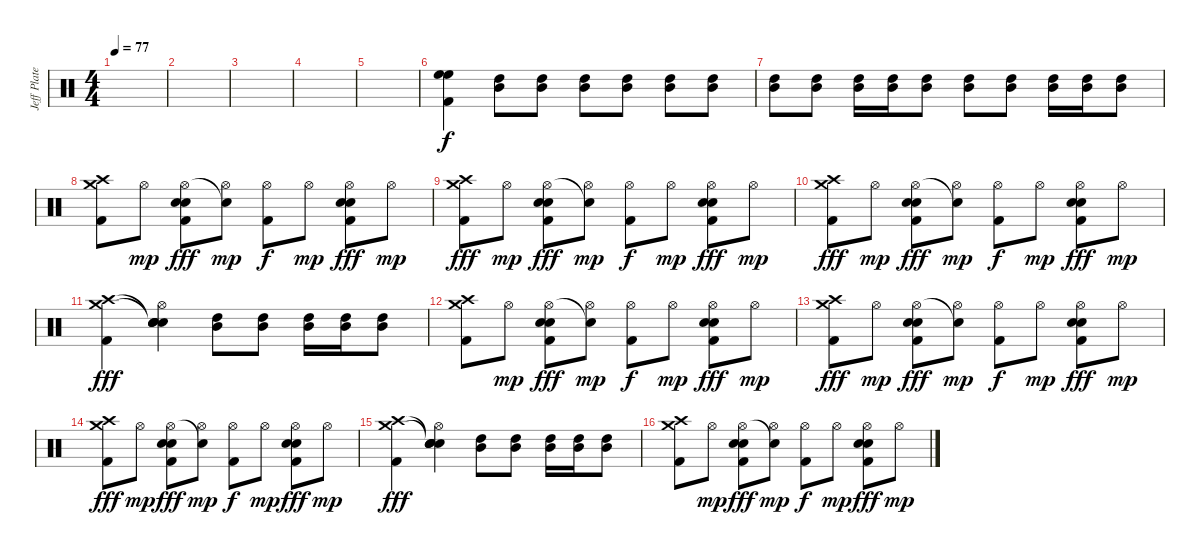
\track ("Jeff Plate" "Jeff Plate") {instrument percussion}
\staff {score}
\articulation defaults
\ts (4 4)
\tempo 77
\clef neutral
\ks c
|
|
|
|
|
("High Floor Tom (hit)" "High Floor Tom (hit)" "Kick (hit) 2").4 ("High Tom (hit)" "Mid Tom (hit)").8 ("High Tom (hit)" "Mid Tom (hit)").8 ("High Tom (hit)" "Mid Tom (hit)").8 ("High Tom (hit)" "Mid Tom (hit)").8 ("High Tom (hit)" "Mid Tom (hit)").8 ("High Tom (hit)" "Mid Tom (hit)").8 |
("High Tom (hit)" "Mid Tom (hit)").8 ("High Tom (hit)" "Mid Tom (hit)").8 ("High Tom (hit)" "Mid Tom (hit)").16 ("High Tom (hit)" "Mid Tom (hit)").16 ("High Tom (hit)" "Mid Tom (hit)").8 ("High Tom (hit)" "Mid Tom (hit)").8 ("High Tom (hit)" "Mid Tom (hit)").8 ("High Tom (hit)" "Mid Tom (hit)").16 ("High Tom (hit)" "Mid Tom (hit)").16 ("High Tom (hit)" "Mid Tom (hit)").8 |
("Crash medium (hit)" "Crash high (hit)" "Kick (hit) 2").8 "Hi-Hat (open)".8{dy mp} ("Hi-Hat (open)" "Electric Snare (hit)" "Electric Snare (hit)" "Kick (hit) 2").8{dy fff} ("Snare (hit)"{t} "Hi-Hat (open)").8{dy mp} ("Hi-Hat (open)" "Kick (hit) 2").8{dy f} "Hi-Hat (open)".8{dy mp} ("Hi-Hat (open)" "Electric Snare (hit)" "Electric Snare (hit)" "Kick (hit) 2").8{dy fff} "Hi-Hat (open)".8{dy mp} |
("Crash medium (hit)" "Crash high (hit)" "Kick (hit) 2").8{dy fff} "Hi-Hat (open)".8{dy mp} ("Hi-Hat (open)" "Electric Snare (hit)" "Electric Snare (hit)" "Kick (hit) 2").8{dy fff} ("Snare (hit)"{t} "Hi-Hat (open)").8{dy mp} ("Hi-Hat (open)" "Kick (hit) 2").8{dy f} "Hi-Hat (open)".8{dy mp} ("Hi-Hat (open)" "Electric Snare (hit)" "Electric Snare (hit)" "Kick (hit) 2").8{dy fff} "Hi-Hat (open)".8{dy mp} |
("Crash medium (hit)" "Crash high (hit)" "Kick (hit) 2").8{dy fff} "Hi-Hat (open)".8{dy mp} ("Hi-Hat (open)" "Electric Snare (hit)" "Electric Snare (hit)" "Kick (hit) 2").8{dy fff} ("Snare (hit)"{t} "Hi-Hat (open)").8{dy mp} ("Hi-Hat (open)" "Kick (hit) 2").8{dy f} "Hi-Hat (open)".8{dy mp} ("Hi-Hat (open)" "Electric Snare (hit)" "Electric Snare (hit)" "Kick (hit) 2").8{dy fff} "Hi-Hat (open)".8{dy mp} |
("Crash medium (hit)" "Crash high (hit)" "Kick (hit) 2").4{dy fff} ("Snare (hit)"{t} "Snare (hit)"{t} "Hi-Hat (open)" "Electric Snare (hit)" "Electric Snare (hit)").4 ("Mid Tom (hit)" "High Tom (hit)").8 ("Mid Tom (hit)" "High Tom (hit)").8 ("Mid Tom (hit)" "High Tom (hit)").16 ("Mid Tom (hit)" "High Tom (hit)").16 ("Mid Tom (hit)" "High Tom (hit)").8 |
("Crash medium (hit)" "Crash high (hit)" "Kick (hit) 2").8 "Hi-Hat (open)".8{dy mp} ("Hi-Hat (open)" "Electric Snare (hit)" "Electric Snare (hit)" "Kick (hit) 2").8{dy fff} ("Snare (hit)"{t} "Hi-Hat (open)").8{dy mp} ("Hi-Hat (open)" "Kick (hit) 2").8{dy f} "Hi-Hat (open)".8{dy mp} ("Hi-Hat (open)" "Electric Snare (hit)" "Electric Snare (hit)" "Kick (hit) 2").8{dy fff} "Hi-Hat (open)".8{dy mp} |
("Crash medium (hit)" "Crash high (hit)" "Kick (hit) 2").8{dy fff} "Hi-Hat (open)".8{dy mp} ("Hi-Hat (open)" "Electric Snare (hit)" "Electric Snare (hit)" "Kick (hit) 2").8{dy fff} ("Snare (hit)"{t} "Hi-Hat (open)").8{dy mp} ("Hi-Hat (open)" "Kick (hit) 2").8{dy f} "Hi-Hat (open)".8{dy mp} ("Hi-Hat (open)" "Electric Snare (hit)" "Electric Snare (hit)" "Kick (hit) 2").8{dy fff} "Hi-Hat (open)".8{dy mp} |
("Crash medium (hit)" "Crash high (hit)" "Kick (hit) 2").8{dy fff} "Hi-Hat (open)".8{dy mp} ("Hi-Hat (open)" "Electric Snare (hit)" "Electric Snare (hit)" "Kick (hit) 2").8{dy fff} ("Snare (hit)"{t} "Hi-Hat (open)").8{dy mp} ("Hi-Hat (open)" "Kick (hit) 2").8{dy f} "Hi-Hat (open)".8{dy mp} ("Hi-Hat (open)" "Electric Snare (hit)" "Electric Snare (hit)" "Kick (hit) 2").8{dy fff} "Hi-Hat (open)".8{dy mp} |
("Crash medium (hit)" "Crash high (hit)" "Kick (hit) 2").4{dy fff} ("Snare (hit)"{t} "Snare (hit)"{t} "Hi-Hat (open)" "Electric Snare (hit)" "Electric Snare (hit)").4 ("Mid Tom (hit)" "High Tom (hit)").8 ("Mid Tom (hit)" "High Tom (hit)").8 ("Mid Tom (hit)" "High Tom (hit)").16 ("Mid Tom (hit)" "High Tom (hit)").16 ("Mid Tom (hit)" "High Tom (hit)").8 |
("Crash medium (hit)" "Crash high (hit)" "Kick (hit) 2").8 "Hi-Hat (open)".8{dy mp} ("Hi-Hat (open)" "Electric Snare (hit)" "Electric Snare (hit)" "Kick (hit) 2").8{dy fff} ("Snare (hit)"{t} "Hi-Hat (open)").8{dy mp} ("Hi-Hat (open)" "Kick (hit) 2").8{dy f} "Hi-Hat (open)".8{dy mp} ("Hi-Hat (open)" "Electric Snare (hit)" "Electric Snare (hit)" "Kick (hit) 2").8{dy fff} "Hi-Hat (open)".8{dy mp}
